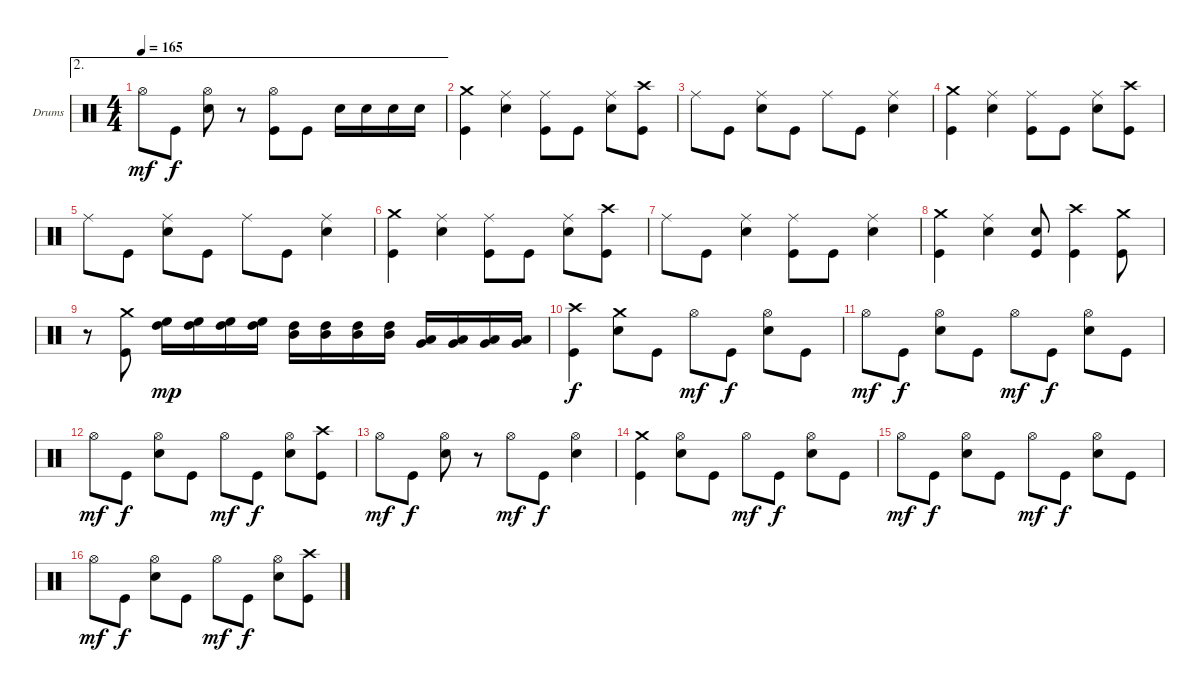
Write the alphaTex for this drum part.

\bracketExtendMode groupsimilarinstruments
\firstSystemTrackNameOrientation horizontal
\otherSystemsTrackNameOrientation horizontal
\track ("Drumkit Midi" "Drums") {instrument percussion}
\staff {score}
\articulation defaults
\ae 2
\ts (4 4)
\tempo 165
\clef neutral
\ks c "Hi-Hat (open)".8{dy mf} "Kick (hit)".8{dy f}
("Snare (hit) 2" "Hi-Hat (open)").8 r.8 ("Kick (hit)" "Hi-Hat (open)").8 "Kick (hit)".8 "Snare (hit) 2".16 "Snare (hit) 2".16 "Snare (hit) 2".16 "Snare (hit) 2".16 |
("Kick (hit)" "Crash medium (hit)").4 ("Snare (hit) 2" "Ride (middle)").4 ("Kick (hit)" "Ride (middle)").8 "Kick (hit)".8 ("Snare (hit) 2" "Ride (middle)").8 ("Kick (hit)" "Crash high (hit)").8 |
"Ride (middle)".8 "Kick (hit)".8 ("Snare (hit) 2" "Ride (middle)").8 "Kick (hit)".8 "Ride (middle)".8 "Kick (hit)".8 ("Snare (hit) 2" "Ride (middle)").4 |
("Kick (hit)" "Crash medium (hit)").4 ("Snare (hit) 2" "Ride (middle)").4 ("Kick (hit)" "Ride (middle)").8 "Kick (hit)".8 ("Snare (hit) 2" "Ride (middle)").8 ("Kick (hit)" "Crash high (hit)").8 |
"Ride (middle)".8 "Kick (hit)".8 ("Snare (hit) 2" "Ride (middle)").8 "Kick (hit)".8 "Ride (middle)".8 "Kick (hit)".8 ("Snare (hit) 2" "Ride (middle)").4 |
("Kick (hit)" "Crash medium (hit)").4 ("Snare (hit) 2" "Ride (middle)").4 ("Kick (hit)" "Ride (middle)").8 "Kick (hit)".8 ("Snare (hit) 2" "Ride (middle)").8 ("Kick (hit)" "Crash high (hit)").8 |
"Ride (middle)".8 "Kick (hit)".8 ("Snare (hit) 2" "Ride (middle)").4 ("Kick (hit)" "Ride (middle)").8 "Kick (hit)".8 ("Snare (hit) 2" "Ride (middle)").4 |
("Kick (hit)" "Crash medium (hit)").4 ("Snare (hit) 2" "Ride (middle)").4 ("Kick (hit)" "Snare (hit) 2").8 ("Kick (hit)" "Crash high (hit)").4 ("Kick (hit)" "Crash medium (hit)").8 |
r.8 ("Kick (hit)" "Crash medium (hit)").8 ("High Floor Tom (hit)" "High Tom (hit)").16{dy mp} ("High Floor Tom (hit)" "High Tom (hit)").16 ("High Floor Tom (hit)" "High Tom (hit)").16 ("High Floor Tom (hit)" "High Tom (hit)").16 ("High Tom (hit)" "Mid Tom (hit)").16 ("High Tom (hit)" "Mid Tom (hit)").16 ("High Tom (hit)" "Mid Tom (hit)").16 ("High Tom (hit)" "Mid Tom (hit)").16 ("Low Tom (hit)" "Very Low Tom (hit)").16 ("Low Tom (hit)" "Very Low Tom (hit)").16 ("Low Tom (hit)" "Very Low Tom (hit)").16 ("Low Tom (hit)" "Very Low Tom (hit)").16 |
("Kick (hit)" "Crash high (hit)").4{dy f} ("Snare (hit) 2" "Crash medium (hit)").8 "Kick (hit)".8 "Hi-Hat (open)".8{dy mf} "Kick (hit)".8{dy f} ("Snare (hit) 2" "Hi-Hat (open)").8 "Kick (hit)".8 |
"Hi-Hat (open)".8{dy mf} "Kick (hit)".8{dy f} ("Snare (hit) 2" "Hi-Hat (open)").8 "Kick (hit)".8 "Hi-Hat (open)".8{dy mf} "Kick (hit)".8{dy f} ("Snare (hit) 2" "Hi-Hat (open)").8 "Kick (hit)".8 |
"Hi-Hat (open)".8{dy mf} "Kick (hit)".8{dy f} ("Snare (hit) 2" "Hi-Hat (open)").8 "Kick (hit)".8 "Hi-Hat (open)".8{dy mf} "Kick (hit)".8{dy f} ("Snare (hit) 2" "Hi-Hat (open)").8 ("Kick (hit)" "Crash high (hit)").8 |
"Hi-Hat (open)".8{dy mf} "Kick (hit)".8{dy f} ("Snare (hit) 2" "Hi-Hat (open)").8 r.8 "Hi-Hat (open)".8{dy mf} "Kick (hit)".8{dy f} ("Snare (hit) 2" "Hi-Hat (open)").4 |
("Kick (hit)" "Crash medium (hit)").4 ("Snare (hit) 2" "Hi-Hat (open)").8 "Kick (hit)".8 "Hi-Hat (open)".8{dy mf} "Kick (hit)".8{dy f} ("Snare (hit) 2" "Hi-Hat (open)").8 "Kick (hit)".8 |
"Hi-Hat (open)".8{dy mf} "Kick (hit)".8{dy f} ("Snare (hit) 2" "Hi-Hat (open)").8 "Kick (hit)".8 "Hi-Hat (open)".8{dy mf} "Kick (hit)".8{dy f} ("Snare (hit) 2" "Hi-Hat (open)").8 "Kick (hit)".8 |
"Hi-Hat (open)".8{dy mf} "Kick (hit)".8{dy f} ("Snare (hit) 2" "Hi-Hat (open)").8 "Kick (hit)".8 "Hi-Hat (open)".8{dy mf} "Kick (hit)".8{dy f} ("Snare (hit) 2" "Hi-Hat (open)").8 ("Kick (hit)" "Crash high (hit)").8
